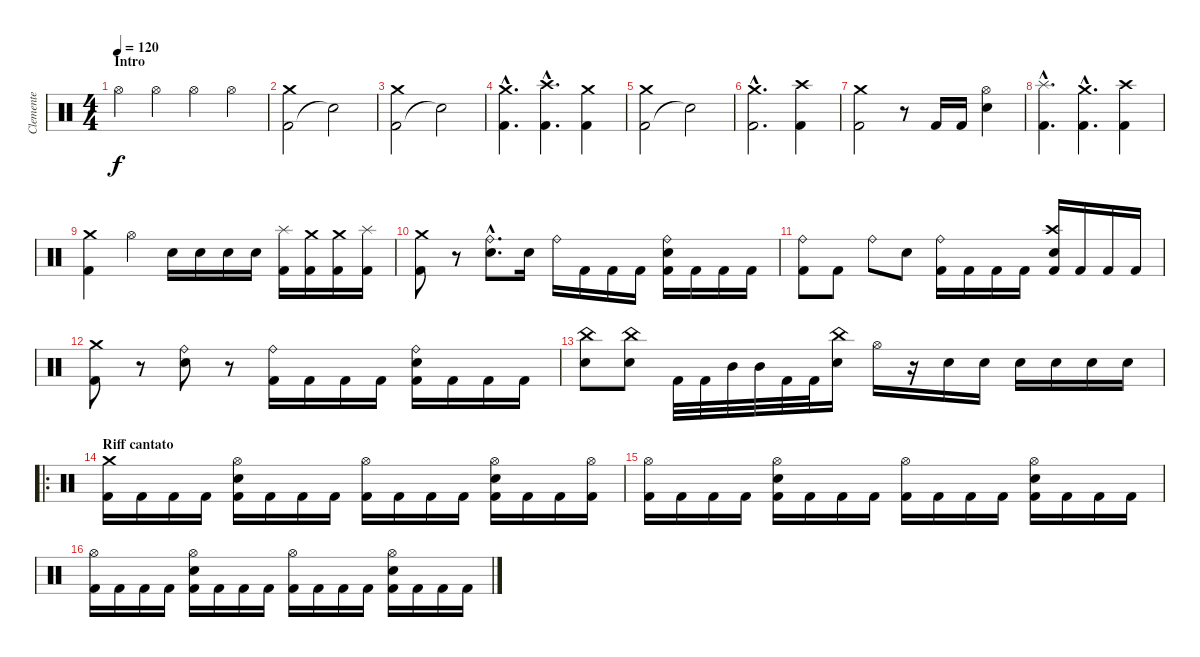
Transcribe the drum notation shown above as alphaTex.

\track ("Clemente" "Clemente") {instrument percussion}
\staff {score}
\articulation defaults
\ts (4 4)
\section ("" "Intro")
\tempo 120
\clef neutral
\ks c "Hi-Hat (open)".4{dy f} "Hi-Hat (open)".4 "Hi-Hat (open)".4 "Hi-Hat (open)".4
|
("Kick (hit) 2" "Crash medium (hit)").2 "Snare (hit)"{t}.2 |
("Kick (hit) 2" "Crash medium (hit)").2 "Snare (hit)"{t}.2 |
("Kick (hit) 2"{hac} "Crash medium (hit)"{hac}).4{d} ("Kick (hit) 2"{hac} "Crash high (hit)"{hac}).4{d} ("Kick (hit) 2" "Crash medium (hit)").4 |
("Kick (hit) 2" "Crash medium (hit)").2 "Snare (hit)"{t}.2 |
("Kick (hit) 2"{hac} "Crash medium (hit)"{hac}).2{d} ("Kick (hit) 2" "Crash high (hit)").4 |
("Kick (hit) 2" "Crash medium (hit)").2 r.8 "Kick (hit) 2".16 "Kick (hit) 2".16 ("Electric Snare (hit)" "Hi-Hat (open)").4 |
("Kick (hit) 2"{hac} "Splash (hit)"{hac}).4{d} ("Kick (hit) 2"{hac} "Crash medium (hit)"{hac}).4{d} ("Kick (hit) 2" "Crash high (hit)").4 |
("Kick (hit) 2" "Crash medium (hit)").4 "Hi-Hat (open)".4 "Electric Snare (hit)".16 "Electric Snare (hit)".16 "Electric Snare (hit)".16 "Electric Snare (hit)".16 ("Kick (hit) 2" "Splash (hit)").16 ("Kick (hit) 2" "Crash medium (hit)").16 ("Kick (hit) 2" "Crash medium (hit)").16 ("Kick (hit) 2" "Splash (hit)").16 |
("Kick (hit) 2" "Crash medium (hit)").8 r.8 ("Electric Snare (hit)"{hac} "Ride (bell)"{hac}).8{d} "Electric Snare (hit)".16 "Ride (bell)".16 "Kick (hit) 2".16 "Kick (hit) 2".16 "Kick (hit) 2".16 ("Kick (hit) 2" "Electric Snare (hit)" "Ride (bell)").16 "Kick (hit) 2".16 "Kick (hit) 2".16 "Kick (hit) 2".16 |
("Kick (hit) 2" "Ride (bell)").8 "Kick (hit) 2".8 "Ride (bell)".8 "Electric Snare (hit)".8 ("Kick (hit) 2" "Ride (bell)").16 "Kick (hit) 2".16 "Kick (hit) 2".16 "Kick (hit) 2".16 ("Kick (hit) 2" "Electric Snare (hit)" "Crash high (hit)").16 "Kick (hit) 2".16 "Kick (hit) 2".16 "Kick (hit) 2".16 |
("Kick (hit) 2" "Crash medium (hit)").8 r.8 ("Electric Snare (hit)" "Ride (bell)").8 r.8 ("Kick (hit) 2" "Ride (bell)").16 "Kick (hit) 2".16 "Kick (hit) 2".16 "Kick (hit) 2".16 ("Kick (hit) 2" "Electric Snare (hit)" "Ride (bell)").16 "Kick (hit) 2".16 "Kick (hit) 2".16 "Kick (hit) 2".16 |
("Electric Snare (hit)" "China (hit)").8 ("Electric Snare (hit)" "China (hit)").8 "Kick (hit) 2".32 "Kick (hit) 2".32 "Mid Tom (hit)".32 "Mid Tom (hit)".32 "Kick (hit) 2".32 "Kick (hit) 2".32 ("Electric Snare (hit)" "China (hit)").16 "Hi-Hat (open)".16 r.16 "Electric Snare (hit)".16 "Electric Snare (hit)".16 "Electric Snare (hit)".16 "Electric Snare (hit)".16 "Electric Snare (hit)".16 "Electric Snare (hit)".16 |
\ro
\section ("" "Riff cantato")
("Kick (hit) 2" "Crash medium (hit)").16 "Kick (hit) 2".16 "Kick (hit) 2".16 "Kick (hit) 2".16 ("Kick (hit) 2" "Electric Snare (hit)" "Hi-Hat (open)").16 "Kick (hit) 2".16 "Kick (hit) 2".16 "Kick (hit) 2".16 ("Kick (hit) 2" "Hi-Hat (open)").16 "Kick (hit) 2".16 "Kick (hit) 2".16 "Kick (hit) 2".16 ("Kick (hit) 2" "Electric Snare (hit)" "Hi-Hat (open)").16 "Kick (hit) 2".16 "Kick (hit) 2".16 ("Kick (hit) 2" "Hi-Hat (open)").16 |
("Kick (hit) 2" "Hi-Hat (open)").16 "Kick (hit) 2".16 "Kick (hit) 2".16 "Kick (hit) 2".16 ("Kick (hit) 2" "Electric Snare (hit)" "Hi-Hat (open)").16 "Kick (hit) 2".16 "Kick (hit) 2".16 "Kick (hit) 2".16 ("Kick (hit) 2" "Hi-Hat (open)").16 "Kick (hit) 2".16 "Kick (hit) 2".16 "Kick (hit) 2".16 ("Kick (hit) 2" "Electric Snare (hit)" "Hi-Hat (open)").16 "Kick (hit) 2".16 "Kick (hit) 2".16 "Kick (hit) 2".16 |
("Kick (hit) 2" "Hi-Hat (open)").16 "Kick (hit) 2".16 "Kick (hit) 2".16 "Kick (hit) 2".16 ("Kick (hit) 2" "Electric Snare (hit)" "Hi-Hat (open)").16 "Kick (hit) 2".16 "Kick (hit) 2".16 "Kick (hit) 2".16 ("Kick (hit) 2" "Hi-Hat (open)").16 "Kick (hit) 2".16 "Kick (hit) 2".16 "Kick (hit) 2".16 ("Kick (hit) 2" "Electric Snare (hit)" "Hi-Hat (open)").16 "Kick (hit) 2".16 "Kick (hit) 2".16 "Kick (hit) 2".16
